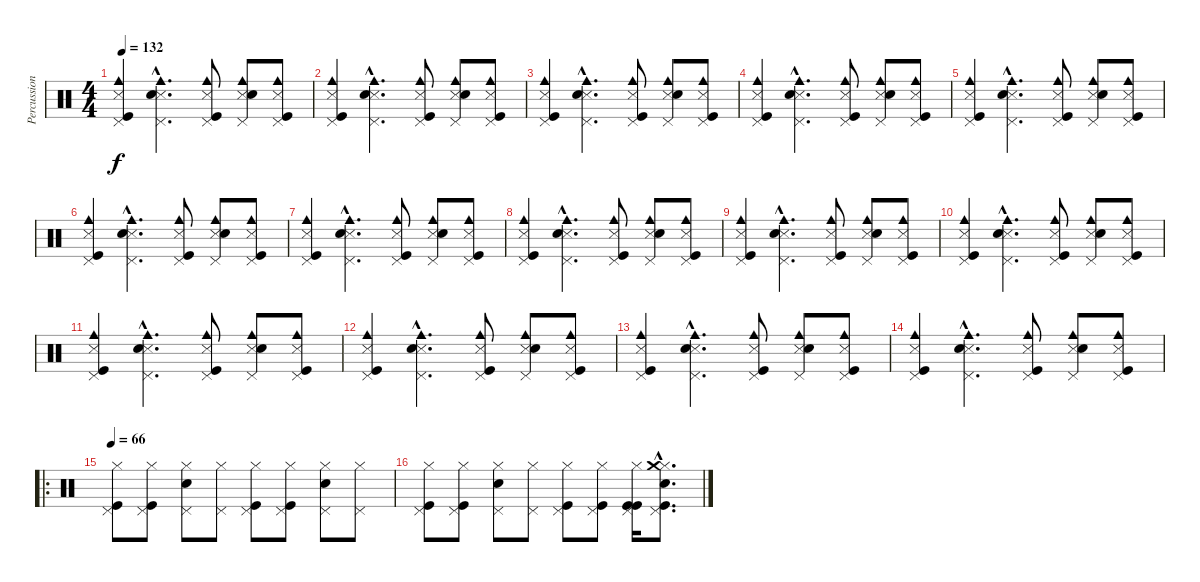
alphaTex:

\track ("Percussion" "Percussion") {instrument percussion}
\staff {score}
\articulation defaults
\ts (4 4)
\tempo 132
\clef neutral
\ks c
("Snare (side stick) 3" "Pedal Hi-Hat (hit)" "Cowbell medium (hit)" "Kick (hit)").4{dy f} ("Snare (side stick) 3"{hac} "Pedal Hi-Hat (hit)"{hac} "Cowbell medium (hit)"{hac} "Electric Snare (hit)"{hac}).4{d} ("Snare (side stick) 3" "Pedal Hi-Hat (hit)" "Cowbell medium (hit)" "Kick (hit)").8 ("Snare (side stick) 3" "Pedal Hi-Hat (hit)" "Cowbell medium (hit)" "Electric Snare (hit)").8 ("Snare (side stick) 3" "Pedal Hi-Hat (hit)" "Cowbell medium (hit)" "Kick (hit)").8 |
("Snare (side stick) 3" "Pedal Hi-Hat (hit)" "Cowbell medium (hit)" "Kick (hit)").4 ("Snare (side stick) 3"{hac} "Pedal Hi-Hat (hit)"{hac} "Cowbell medium (hit)"{hac} "Electric Snare (hit)"{hac}).4{d} ("Snare (side stick) 3" "Pedal Hi-Hat (hit)" "Cowbell medium (hit)" "Kick (hit)").8 ("Snare (side stick) 3" "Pedal Hi-Hat (hit)" "Cowbell medium (hit)" "Electric Snare (hit)").8 ("Snare (side stick) 3" "Pedal Hi-Hat (hit)" "Cowbell medium (hit)" "Kick (hit)").8 |
("Snare (side stick) 3" "Pedal Hi-Hat (hit)" "Cowbell medium (hit)" "Kick (hit)").4 ("Snare (side stick) 3"{hac} "Pedal Hi-Hat (hit)"{hac} "Cowbell medium (hit)"{hac} "Electric Snare (hit)"{hac}).4{d} ("Snare (side stick) 3" "Pedal Hi-Hat (hit)" "Cowbell medium (hit)" "Kick (hit)").8 ("Snare (side stick) 3" "Pedal Hi-Hat (hit)" "Cowbell medium (hit)" "Electric Snare (hit)").8 ("Snare (side stick) 3" "Pedal Hi-Hat (hit)" "Cowbell medium (hit)" "Kick (hit)").8 |
("Snare (side stick) 3" "Pedal Hi-Hat (hit)" "Cowbell medium (hit)" "Kick (hit)").4 ("Snare (side stick) 3"{hac} "Pedal Hi-Hat (hit)"{hac} "Cowbell medium (hit)"{hac} "Electric Snare (hit)"{hac}).4{d} ("Snare (side stick) 3" "Pedal Hi-Hat (hit)" "Cowbell medium (hit)" "Kick (hit)").8 ("Snare (side stick) 3" "Pedal Hi-Hat (hit)" "Cowbell medium (hit)" "Electric Snare (hit)").8 ("Snare (side stick) 3" "Pedal Hi-Hat (hit)" "Cowbell medium (hit)" "Kick (hit)").8 |
("Snare (side stick) 3" "Pedal Hi-Hat (hit)" "Cowbell medium (hit)" "Kick (hit)").4 ("Snare (side stick) 3"{hac} "Pedal Hi-Hat (hit)"{hac} "Cowbell medium (hit)"{hac} "Electric Snare (hit)"{hac}).4{d} ("Snare (side stick) 3" "Pedal Hi-Hat (hit)" "Cowbell medium (hit)" "Kick (hit)").8 ("Snare (side stick) 3" "Pedal Hi-Hat (hit)" "Cowbell medium (hit)" "Electric Snare (hit)").8 ("Snare (side stick) 3" "Pedal Hi-Hat (hit)" "Cowbell medium (hit)" "Kick (hit)").8 |
("Snare (side stick) 3" "Pedal Hi-Hat (hit)" "Cowbell medium (hit)" "Kick (hit)").4 ("Snare (side stick) 3"{hac} "Pedal Hi-Hat (hit)"{hac} "Cowbell medium (hit)"{hac} "Electric Snare (hit)"{hac}).4{d} ("Snare (side stick) 3" "Pedal Hi-Hat (hit)" "Cowbell medium (hit)" "Kick (hit)").8 ("Snare (side stick) 3" "Pedal Hi-Hat (hit)" "Cowbell medium (hit)" "Electric Snare (hit)").8 ("Snare (side stick) 3" "Pedal Hi-Hat (hit)" "Cowbell medium (hit)" "Kick (hit)").8 |
("Snare (side stick) 3" "Pedal Hi-Hat (hit)" "Cowbell medium (hit)" "Kick (hit)").4 ("Snare (side stick) 3"{hac} "Pedal Hi-Hat (hit)"{hac} "Cowbell medium (hit)"{hac} "Electric Snare (hit)"{hac}).4{d} ("Snare (side stick) 3" "Pedal Hi-Hat (hit)" "Cowbell medium (hit)" "Kick (hit)").8 ("Snare (side stick) 3" "Pedal Hi-Hat (hit)" "Cowbell medium (hit)" "Electric Snare (hit)").8 ("Snare (side stick) 3" "Pedal Hi-Hat (hit)" "Cowbell medium (hit)" "Kick (hit)").8 |
("Snare (side stick) 3" "Pedal Hi-Hat (hit)" "Cowbell medium (hit)" "Kick (hit)").4 ("Snare (side stick) 3"{hac} "Pedal Hi-Hat (hit)"{hac} "Cowbell medium (hit)"{hac} "Electric Snare (hit)"{hac}).4{d} ("Snare (side stick) 3" "Pedal Hi-Hat (hit)" "Cowbell medium (hit)" "Kick (hit)").8 ("Snare (side stick) 3" "Pedal Hi-Hat (hit)" "Cowbell medium (hit)" "Electric Snare (hit)").8 ("Snare (side stick) 3" "Pedal Hi-Hat (hit)" "Cowbell medium (hit)" "Kick (hit)").8 |
("Snare (side stick) 3" "Pedal Hi-Hat (hit)" "Cowbell medium (hit)" "Kick (hit)").4 ("Snare (side stick) 3"{hac} "Pedal Hi-Hat (hit)"{hac} "Cowbell medium (hit)"{hac} "Electric Snare (hit)"{hac}).4{d} ("Snare (side stick) 3" "Pedal Hi-Hat (hit)" "Cowbell medium (hit)" "Kick (hit)").8 ("Snare (side stick) 3" "Pedal Hi-Hat (hit)" "Cowbell medium (hit)" "Electric Snare (hit)").8 ("Snare (side stick) 3" "Pedal Hi-Hat (hit)" "Cowbell medium (hit)" "Kick (hit)").8 |
("Snare (side stick) 3" "Pedal Hi-Hat (hit)" "Cowbell medium (hit)" "Kick (hit)").4 ("Snare (side stick) 3"{hac} "Pedal Hi-Hat (hit)"{hac} "Cowbell medium (hit)"{hac} "Electric Snare (hit)"{hac}).4{d} ("Snare (side stick) 3" "Pedal Hi-Hat (hit)" "Cowbell medium (hit)" "Kick (hit)").8 ("Snare (side stick) 3" "Pedal Hi-Hat (hit)" "Cowbell medium (hit)" "Electric Snare (hit)").8 ("Snare (side stick) 3" "Pedal Hi-Hat (hit)" "Cowbell medium (hit)" "Kick (hit)").8 |
("Snare (side stick) 3" "Pedal Hi-Hat (hit)" "Cowbell medium (hit)" "Kick (hit)").4 ("Snare (side stick) 3"{hac} "Pedal Hi-Hat (hit)"{hac} "Cowbell medium (hit)"{hac} "Electric Snare (hit)"{hac}).4{d} ("Snare (side stick) 3" "Pedal Hi-Hat (hit)" "Cowbell medium (hit)" "Kick (hit)").8 ("Snare (side stick) 3" "Pedal Hi-Hat (hit)" "Cowbell medium (hit)" "Electric Snare (hit)").8 ("Snare (side stick) 3" "Pedal Hi-Hat (hit)" "Cowbell medium (hit)" "Kick (hit)").8 |
("Snare (side stick) 3" "Pedal Hi-Hat (hit)" "Cowbell medium (hit)" "Kick (hit)").4 ("Snare (side stick) 3"{hac} "Pedal Hi-Hat (hit)"{hac} "Cowbell medium (hit)"{hac} "Electric Snare (hit)"{hac}).4{d} ("Snare (side stick) 3" "Pedal Hi-Hat (hit)" "Cowbell medium (hit)" "Kick (hit)").8 ("Snare (side stick) 3" "Pedal Hi-Hat (hit)" "Cowbell medium (hit)" "Electric Snare (hit)").8 ("Snare (side stick) 3" "Pedal Hi-Hat (hit)" "Cowbell medium (hit)" "Kick (hit)").8 |
("Snare (side stick) 3" "Pedal Hi-Hat (hit)" "Cowbell medium (hit)" "Kick (hit)").4 ("Snare (side stick) 3"{hac} "Pedal Hi-Hat (hit)"{hac} "Cowbell medium (hit)"{hac} "Electric Snare (hit)"{hac}).4{d} ("Snare (side stick) 3" "Pedal Hi-Hat (hit)" "Cowbell medium (hit)" "Kick (hit)").8 ("Snare (side stick) 3" "Pedal Hi-Hat (hit)" "Cowbell medium (hit)" "Electric Snare (hit)").8 ("Snare (side stick) 3" "Pedal Hi-Hat (hit)" "Cowbell medium (hit)" "Kick (hit)").8 |
("Snare (side stick) 3" "Pedal Hi-Hat (hit)" "Cowbell medium (hit)" "Kick (hit)").4 ("Snare (side stick) 3"{hac} "Pedal Hi-Hat (hit)"{hac} "Cowbell medium (hit)"{hac} "Electric Snare (hit)"{hac}).4{d} ("Snare (side stick) 3" "Pedal Hi-Hat (hit)" "Cowbell medium (hit)" "Kick (hit)").8 ("Snare (side stick) 3" "Pedal Hi-Hat (hit)" "Cowbell medium (hit)" "Electric Snare (hit)").8 ("Snare (side stick) 3" "Pedal Hi-Hat (hit)" "Cowbell medium (hit)" "Kick (hit)").8 |
\ro
\tempo 66
("Pedal Hi-Hat (hit)" "Hi-Hat (closed)" "Kick (hit)").8 ("Pedal Hi-Hat (hit)" "Hi-Hat (closed)" "Kick (hit)").8 ("Pedal Hi-Hat (hit)" "Hi-Hat (closed)" "Electric Snare (hit)").8 ("Pedal Hi-Hat (hit)" "Hi-Hat (closed)").8 ("Pedal Hi-Hat (hit)" "Hi-Hat (closed)" "Kick (hit)").8 ("Pedal Hi-Hat (hit)" "Hi-Hat (closed)" "Kick (hit)").8 ("Pedal Hi-Hat (hit)" "Hi-Hat (closed)" "Electric Snare (hit)").8 ("Pedal Hi-Hat (hit)" "Hi-Hat (closed)").8 |
("Pedal Hi-Hat (hit)" "Hi-Hat (closed)" "Kick (hit)").8 ("Pedal Hi-Hat (hit)" "Hi-Hat (closed)" "Kick (hit)").8 ("Pedal Hi-Hat (hit)" "Hi-Hat (closed)" "Electric Snare (hit)").8 ("Pedal Hi-Hat (hit)" "Hi-Hat (closed)").8 ("Pedal Hi-Hat (hit)" "Hi-Hat (closed)" "Kick (hit)").8 ("Pedal Hi-Hat (hit)" "Hi-Hat (closed)" "Kick (hit)").8 ("Pedal Hi-Hat (hit)" "Hi-Hat (closed)" "Kick (hit)" "Kick (hit)").16 ("Pedal Hi-Hat (hit)"{hac} "Hi-Hat (closed)"{hac} "Crash medium (hit)"{hac} "Electric Snare (hit)"{hac} "Kick (hit)"{hac}).8{d}
